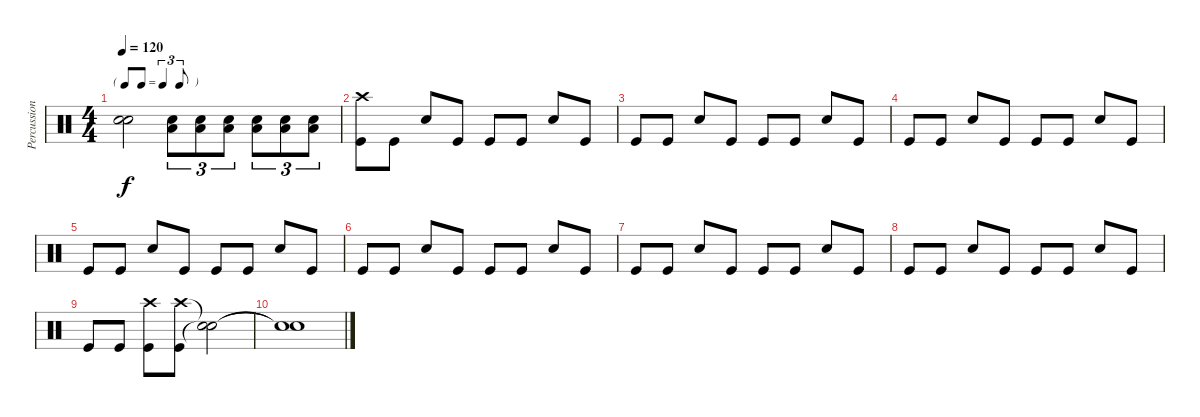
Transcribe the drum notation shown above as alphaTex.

\track ("Percussion" "Percussion") {instrument percussion}
\staff {score}
\articulation defaults
\ts (4 4)
\tf triplet8th
\tempo 120
\clef neutral
\ks c
("Snare (hit)"{t} "Snare (hit)"{t}).2{dy f} ("Snare (hit) 2" "Low Floor Tom (hit)").8{tu (3 2)} ("Snare (hit) 2" "Low Floor Tom (hit)").8{tu (3 2)} ("Snare (hit) 2" "Low Floor Tom (hit)").8{tu (3 2)} ("Snare (hit) 2" "Low Floor Tom (hit)").8{tu (3 2)} ("Snare (hit) 2" "Low Floor Tom (hit)").8{tu (3 2)} ("Snare (hit) 2" "Low Floor Tom (hit)").8{tu (3 2)} |
("Crash high (hit)" "Kick (hit)").8 "Kick (hit)".8 "Snare (hit) 2".8 "Kick (hit)".8 "Kick (hit)".8 "Kick (hit)".8 "Snare (hit) 2".8 "Kick (hit)".8 |
"Kick (hit)".8 "Kick (hit)".8 "Snare (hit) 2".8 "Kick (hit)".8 "Kick (hit)".8 "Kick (hit)".8 "Snare (hit) 2".8 "Kick (hit)".8 |
"Kick (hit)".8 "Kick (hit)".8 "Snare (hit) 2".8 "Kick (hit)".8 "Kick (hit)".8 "Kick (hit)".8 "Snare (hit) 2".8 "Kick (hit)".8 |
"Kick (hit)".8 "Kick (hit)".8 "Snare (hit) 2".8 "Kick (hit)".8 "Kick (hit)".8 "Kick (hit)".8 "Snare (hit) 2".8 "Kick (hit)".8 |
"Kick (hit)".8 "Kick (hit)".8 "Snare (hit) 2".8 "Kick (hit)".8 "Kick (hit)".8 "Kick (hit)".8 "Snare (hit) 2".8 "Kick (hit)".8 |
"Kick (hit)".8 "Kick (hit)".8 "Snare (hit) 2".8 "Kick (hit)".8 "Kick (hit)".8 "Kick (hit)".8 "Snare (hit) 2".8 "Kick (hit)".8 |
"Kick (hit)".8 "Kick (hit)".8 "Snare (hit) 2".8 "Kick (hit)".8 "Kick (hit)".8 "Kick (hit)".8 "Snare (hit) 2".8 "Kick (hit)".8 |
"Kick (hit)".8 "Kick (hit)".8 ("Crash high (hit)" "Kick (hit)").8 ("Crash high (hit)" "Kick (hit)").8 ("Snare (hit)"{t} "Snare (hit)"{t}).2 |
("Snare (hit)"{t} "Snare (hit)"{t}).1{volume 0}
